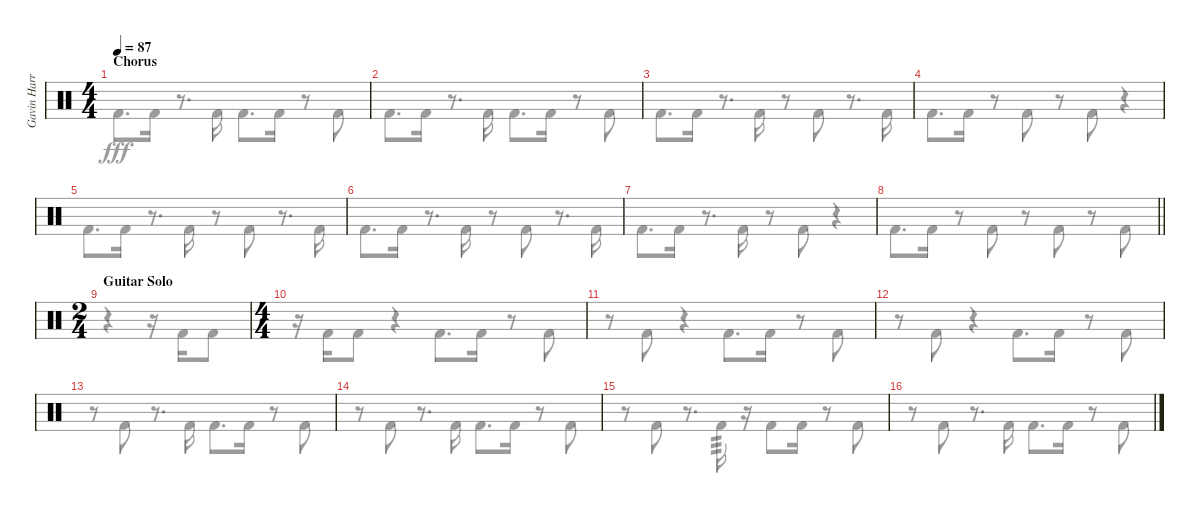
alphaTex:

\track ("Gavin Harrison Bass Pedal" "Gavin Harr") {instrument percussion}
\staff {score}
\articulation defaults
\voice
\ts (4 4)
\section ("" "Chorus")
\tempo 87
\clef neutral
\ks aminor
|
|
|
|
|
|
|
\barLineRight lightlight
|
\ts (2 4)
\section ("" "Guitar Solo")
|
\ts (4 4)
|
|
|
|
|
|
\voice
\clef neutral
\ks aminor "Kick (hit) 2".8{d dy fff} "Kick (hit) 2".16
r.8{d} "Kick (hit) 2".16 "Kick (hit) 2".8{d} "Kick (hit) 2".16 r.8 "Kick (hit) 2".8 |
"Kick (hit) 2".8{d} "Kick (hit) 2".16 r.8{d} "Kick (hit) 2".16 "Kick (hit) 2".8{d} "Kick (hit) 2".16 r.8 "Kick (hit) 2".8 |
"Kick (hit) 2".8{d} "Kick (hit) 2".16 r.8{d} "Kick (hit) 2".16 r.8 "Kick (hit) 2".8 r.8{d} "Kick (hit) 2".16 |
"Kick (hit) 2".8{d} "Kick (hit) 2".16 r.8 "Kick (hit) 2".8 r.8 "Kick (hit) 2".8 r.4 |
"Kick (hit) 2".8{d} "Kick (hit) 2".16 r.8{d} "Kick (hit) 2".16 r.8 "Kick (hit) 2".8 r.8{d} "Kick (hit) 2".16 |
"Kick (hit) 2".8{d} "Kick (hit) 2".16 r.8{d} "Kick (hit) 2".16 r.8 "Kick (hit) 2".8 r.8{d} "Kick (hit) 2".16 |
"Kick (hit) 2".8{d} "Kick (hit) 2".16 r.8{d} "Kick (hit) 2".16 r.8 "Kick (hit) 2".8 r.4 |
\barLineRight lightlight "Kick (hit) 2".8{d} "Kick (hit) 2".16
r.8 "Kick (hit) 2".8 r.8 "Kick (hit) 2".8 r.8 "Kick (hit) 2".8 |
r.4 r.16 "Kick (hit) 2".16 "Kick (hit) 2".8 |
r.16 "Kick (hit) 2".16 "Kick (hit) 2".8 r.4 "Kick (hit) 2".8{d} "Kick (hit) 2".16 r.8 "Kick (hit) 2".8 |
r.8 "Kick (hit) 2".8 r.4 "Kick (hit) 2".8{d} "Kick (hit) 2".16 r.8 "Kick (hit) 2".8 |
r.8 "Kick (hit) 2".8 r.4 "Kick (hit) 2".8{d} "Kick (hit) 2".16 r.8 "Kick (hit) 2".8 |
r.8 "Kick (hit) 2".8 r.8{d} "Kick (hit) 2".16 "Kick (hit) 2".8{d} "Kick (hit) 2".16 r.8 "Kick (hit) 2".8 |
r.8 "Kick (hit) 2".8 r.8{d} "Kick (hit) 2".16 "Kick (hit) 2".8{d} "Kick (hit) 2".16 r.8 "Kick (hit) 2".8 |
r.8 "Kick (hit) 2".8 r.8{d} "Kick (hit) 2".16{tp 3} r.16 "Kick (hit) 2".8 "Kick (hit) 2".16 r.8 "Kick (hit) 2".8 |
r.8 "Kick (hit) 2".8 r.8{d} "Kick (hit) 2".16 "Kick (hit) 2".8{d} "Kick (hit) 2".16 r.8 "Kick (hit) 2".8
